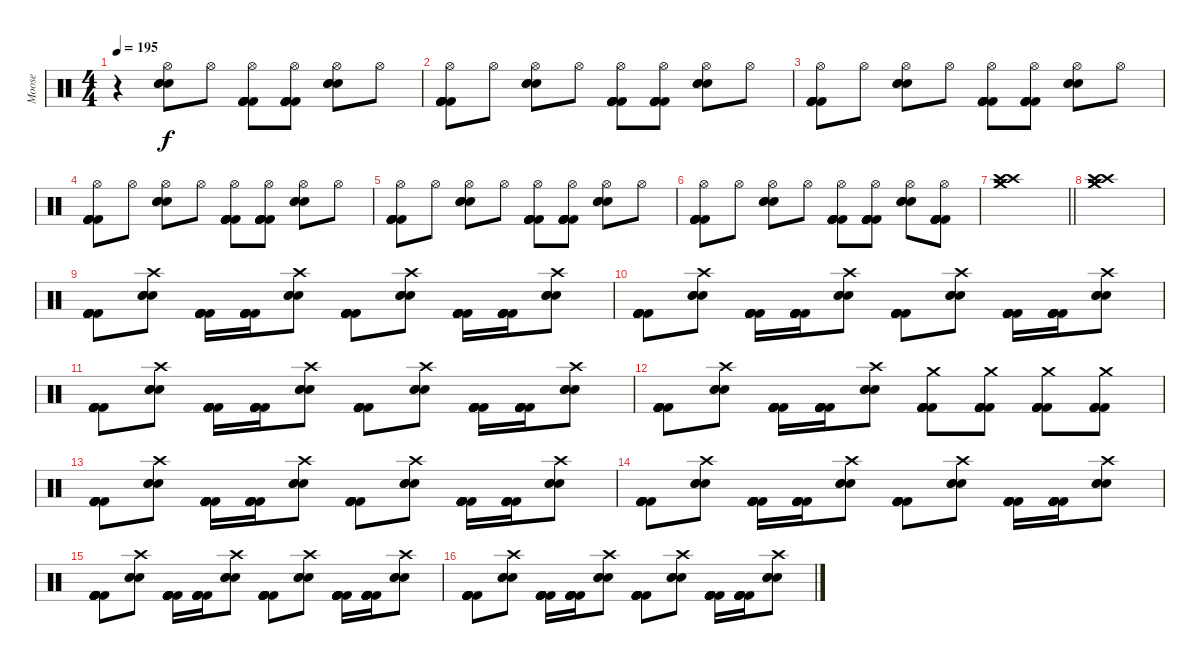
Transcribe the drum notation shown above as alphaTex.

\track ("Moose" "Moose") {instrument percussion}
\staff {score}
\articulation defaults
\ts (4 4)
\tempo 195
\clef neutral
\ks c
r.4{dy f} ("Electric Snare (hit)" "Electric Snare (hit)" "Electric Snare (hit)" "Hi-Hat (open)").8 "Hi-Hat (open)".8 ("Kick (hit) 2" "Kick (hit) 2" "Kick (hit) 2" "Kick (hit) 2" "Kick (hit) 2" "Hi-Hat (open)").8 ("Kick (hit) 2" "Kick (hit) 2" "Kick (hit) 2" "Kick (hit) 2" "Kick (hit) 2" "Hi-Hat (open)").8 ("Electric Snare (hit)" "Electric Snare (hit)" "Electric Snare (hit)" "Hi-Hat (open)").8 "Hi-Hat (open)".8 |
("Kick (hit) 2" "Kick (hit) 2" "Kick (hit) 2" "Kick (hit) 2" "Kick (hit) 2" "Hi-Hat (open)").8 "Hi-Hat (open)".8 ("Electric Snare (hit)" "Electric Snare (hit)" "Electric Snare (hit)" "Hi-Hat (open)").8 "Hi-Hat (open)".8 ("Kick (hit) 2" "Kick (hit) 2" "Kick (hit) 2" "Kick (hit) 2" "Kick (hit) 2" "Hi-Hat (open)").8 ("Kick (hit) 2" "Kick (hit) 2" "Kick (hit) 2" "Kick (hit) 2" "Kick (hit) 2" "Hi-Hat (open)").8 ("Electric Snare (hit)" "Electric Snare (hit)" "Electric Snare (hit)" "Hi-Hat (open)").8 "Hi-Hat (open)".8 |
("Kick (hit) 2" "Kick (hit) 2" "Kick (hit) 2" "Kick (hit) 2" "Kick (hit) 2" "Hi-Hat (open)").8 "Hi-Hat (open)".8 ("Electric Snare (hit)" "Electric Snare (hit)" "Electric Snare (hit)" "Hi-Hat (open)").8 "Hi-Hat (open)".8 ("Kick (hit) 2" "Kick (hit) 2" "Kick (hit) 2" "Kick (hit) 2" "Kick (hit) 2" "Hi-Hat (open)").8 ("Kick (hit) 2" "Kick (hit) 2" "Kick (hit) 2" "Kick (hit) 2" "Kick (hit) 2" "Hi-Hat (open)").8 ("Electric Snare (hit)" "Electric Snare (hit)" "Electric Snare (hit)" "Hi-Hat (open)").8 "Hi-Hat (open)".8 |
("Kick (hit) 2" "Kick (hit) 2" "Kick (hit) 2" "Kick (hit) 2" "Kick (hit) 2" "Hi-Hat (open)").8 "Hi-Hat (open)".8 ("Electric Snare (hit)" "Electric Snare (hit)" "Electric Snare (hit)" "Hi-Hat (open)").8 "Hi-Hat (open)".8 ("Kick (hit) 2" "Kick (hit) 2" "Kick (hit) 2" "Kick (hit) 2" "Kick (hit) 2" "Hi-Hat (open)").8 ("Kick (hit) 2" "Kick (hit) 2" "Kick (hit) 2" "Kick (hit) 2" "Kick (hit) 2" "Hi-Hat (open)").8 ("Electric Snare (hit)" "Electric Snare (hit)" "Electric Snare (hit)" "Hi-Hat (open)").8 "Hi-Hat (open)".8 |
("Kick (hit) 2" "Kick (hit) 2" "Kick (hit) 2" "Kick (hit) 2" "Kick (hit) 2" "Hi-Hat (open)").8 "Hi-Hat (open)".8 ("Electric Snare (hit)" "Electric Snare (hit)" "Electric Snare (hit)" "Hi-Hat (open)").8 "Hi-Hat (open)".8 ("Kick (hit) 2" "Kick (hit) 2" "Kick (hit) 2" "Kick (hit) 2" "Kick (hit) 2" "Hi-Hat (open)").8 ("Kick (hit) 2" "Kick (hit) 2" "Kick (hit) 2" "Kick (hit) 2" "Kick (hit) 2" "Hi-Hat (open)").8 ("Electric Snare (hit)" "Electric Snare (hit)" "Electric Snare (hit)" "Hi-Hat (open)").8 "Hi-Hat (open)".8 |
("Kick (hit) 2" "Kick (hit) 2" "Kick (hit) 2" "Kick (hit) 2" "Kick (hit) 2" "Hi-Hat (open)").8 "Hi-Hat (open)".8 ("Electric Snare (hit)" "Electric Snare (hit)" "Electric Snare (hit)" "Hi-Hat (open)").8 "Hi-Hat (open)".8 ("Kick (hit) 2" "Kick (hit) 2" "Kick (hit) 2" "Kick (hit) 2" "Kick (hit) 2" "Hi-Hat (open)").8 ("Kick (hit) 2" "Kick (hit) 2" "Kick (hit) 2" "Kick (hit) 2" "Kick (hit) 2" "Hi-Hat (open)").8 ("Electric Snare (hit)" "Electric Snare (hit)" "Electric Snare (hit)" "Hi-Hat (open)").8 ("Kick (hit) 2" "Kick (hit) 2" "Kick (hit) 2" "Kick (hit) 2" "Kick (hit) 2" "Hi-Hat (open)").8 |
\barLineRight lightlight
("Crash high (hit)" "Crash medium (hit)" "Crash medium (hit)" "Crash high (hit)").1 |
("Crash high (hit)" "Crash medium (hit)" "Crash medium (hit)" "Crash high (hit)").1 |
("Kick (hit) 2" "Kick (hit) 2" "Kick (hit) 2" "Kick (hit) 2" "Kick (hit) 2" "Kick (hit) 2").8 ("Electric Snare (hit)" "Electric Snare (hit)" "Electric Snare (hit)" "Crash high (hit)").8 ("Kick (hit) 2" "Kick (hit) 2" "Kick (hit) 2" "Kick (hit) 2" "Kick (hit) 2" "Kick (hit) 2").16 ("Kick (hit) 2" "Kick (hit) 2" "Kick (hit) 2" "Kick (hit) 2" "Kick (hit) 2" "Kick (hit) 2").16 ("Electric Snare (hit)" "Electric Snare (hit)" "Electric Snare (hit)" "Crash high (hit)").8 ("Kick (hit) 2" "Kick (hit) 2" "Kick (hit) 2" "Kick (hit) 2" "Kick (hit) 2" "Kick (hit) 2").8 ("Electric Snare (hit)" "Electric Snare (hit)" "Electric Snare (hit)" "Crash high (hit)").8 ("Kick (hit) 2" "Kick (hit) 2" "Kick (hit) 2" "Kick (hit) 2" "Kick (hit) 2" "Kick (hit) 2").16 ("Kick (hit) 2" "Kick (hit) 2" "Kick (hit) 2" "Kick (hit) 2" "Kick (hit) 2" "Kick (hit) 2").16 ("Electric Snare (hit)" "Electric Snare (hit)" "Electric Snare (hit)" "Crash high (hit)").8 |
("Kick (hit) 2" "Kick (hit) 2" "Kick (hit) 2" "Kick (hit) 2" "Kick (hit) 2" "Kick (hit) 2").8 ("Electric Snare (hit)" "Electric Snare (hit)" "Electric Snare (hit)" "Crash high (hit)").8 ("Kick (hit) 2" "Kick (hit) 2" "Kick (hit) 2" "Kick (hit) 2" "Kick (hit) 2" "Kick (hit) 2").16 ("Kick (hit) 2" "Kick (hit) 2" "Kick (hit) 2" "Kick (hit) 2" "Kick (hit) 2" "Kick (hit) 2").16 ("Electric Snare (hit)" "Electric Snare (hit)" "Electric Snare (hit)" "Crash high (hit)").8 ("Kick (hit) 2" "Kick (hit) 2" "Kick (hit) 2" "Kick (hit) 2" "Kick (hit) 2" "Kick (hit) 2").8 ("Electric Snare (hit)" "Electric Snare (hit)" "Electric Snare (hit)" "Crash high (hit)").8 ("Kick (hit) 2" "Kick (hit) 2" "Kick (hit) 2" "Kick (hit) 2" "Kick (hit) 2" "Kick (hit) 2").16 ("Kick (hit) 2" "Kick (hit) 2" "Kick (hit) 2" "Kick (hit) 2" "Kick (hit) 2" "Kick (hit) 2").16 ("Electric Snare (hit)" "Electric Snare (hit)" "Electric Snare (hit)" "Crash high (hit)").8 |
("Kick (hit) 2" "Kick (hit) 2" "Kick (hit) 2" "Kick (hit) 2" "Kick (hit) 2" "Kick (hit) 2").8 ("Electric Snare (hit)" "Electric Snare (hit)" "Electric Snare (hit)" "Crash high (hit)").8 ("Kick (hit) 2" "Kick (hit) 2" "Kick (hit) 2" "Kick (hit) 2" "Kick (hit) 2" "Kick (hit) 2").16 ("Kick (hit) 2" "Kick (hit) 2" "Kick (hit) 2" "Kick (hit) 2" "Kick (hit) 2" "Kick (hit) 2").16 ("Electric Snare (hit)" "Electric Snare (hit)" "Electric Snare (hit)" "Crash high (hit)").8 ("Kick (hit) 2" "Kick (hit) 2" "Kick (hit) 2" "Kick (hit) 2" "Kick (hit) 2" "Kick (hit) 2").8 ("Electric Snare (hit)" "Electric Snare (hit)" "Electric Snare (hit)" "Crash high (hit)").8 ("Kick (hit) 2" "Kick (hit) 2" "Kick (hit) 2" "Kick (hit) 2" "Kick (hit) 2" "Kick (hit) 2").16 ("Kick (hit) 2" "Kick (hit) 2" "Kick (hit) 2" "Kick (hit) 2" "Kick (hit) 2" "Kick (hit) 2").16 ("Electric Snare (hit)" "Electric Snare (hit)" "Electric Snare (hit)" "Crash high (hit)").8 |
("Kick (hit) 2" "Kick (hit) 2" "Kick (hit) 2" "Kick (hit) 2" "Kick (hit) 2" "Kick (hit) 2").8 ("Electric Snare (hit)" "Electric Snare (hit)" "Electric Snare (hit)" "Crash high (hit)").8 ("Kick (hit) 2" "Kick (hit) 2" "Kick (hit) 2" "Kick (hit) 2" "Kick (hit) 2" "Kick (hit) 2").16 ("Kick (hit) 2" "Kick (hit) 2" "Kick (hit) 2" "Kick (hit) 2" "Kick (hit) 2" "Kick (hit) 2").16 ("Electric Snare (hit)" "Electric Snare (hit)" "Electric Snare (hit)" "Crash high (hit)").8 ("Kick (hit) 2" "Kick (hit) 2" "Kick (hit) 2" "Kick (hit) 2" "Kick (hit) 2" "Crash medium (hit)").8 ("Kick (hit) 2" "Kick (hit) 2" "Kick (hit) 2" "Kick (hit) 2" "Kick (hit) 2" "Crash medium (hit)").8 ("Kick (hit) 2" "Kick (hit) 2" "Kick (hit) 2" "Kick (hit) 2" "Kick (hit) 2" "Crash medium (hit)").8 ("Kick (hit) 2" "Kick (hit) 2" "Kick (hit) 2" "Kick (hit) 2" "Kick (hit) 2" "Crash medium (hit)").8 |
("Kick (hit) 2" "Kick (hit) 2" "Kick (hit) 2" "Kick (hit) 2" "Kick (hit) 2" "Kick (hit) 2").8 ("Electric Snare (hit)" "Electric Snare (hit)" "Electric Snare (hit)" "Crash high (hit)").8 ("Kick (hit) 2" "Kick (hit) 2" "Kick (hit) 2" "Kick (hit) 2" "Kick (hit) 2" "Kick (hit) 2").16 ("Kick (hit) 2" "Kick (hit) 2" "Kick (hit) 2" "Kick (hit) 2" "Kick (hit) 2" "Kick (hit) 2").16 ("Electric Snare (hit)" "Electric Snare (hit)" "Electric Snare (hit)" "Crash high (hit)").8 ("Kick (hit) 2" "Kick (hit) 2" "Kick (hit) 2" "Kick (hit) 2" "Kick (hit) 2" "Kick (hit) 2").8 ("Electric Snare (hit)" "Electric Snare (hit)" "Electric Snare (hit)" "Crash high (hit)").8 ("Kick (hit) 2" "Kick (hit) 2" "Kick (hit) 2" "Kick (hit) 2" "Kick (hit) 2" "Kick (hit) 2").16 ("Kick (hit) 2" "Kick (hit) 2" "Kick (hit) 2" "Kick (hit) 2" "Kick (hit) 2" "Kick (hit) 2").16 ("Electric Snare (hit)" "Electric Snare (hit)" "Electric Snare (hit)" "Crash high (hit)").8 |
("Kick (hit) 2" "Kick (hit) 2" "Kick (hit) 2" "Kick (hit) 2" "Kick (hit) 2" "Kick (hit) 2").8 ("Electric Snare (hit)" "Electric Snare (hit)" "Electric Snare (hit)" "Crash high (hit)").8 ("Kick (hit) 2" "Kick (hit) 2" "Kick (hit) 2" "Kick (hit) 2" "Kick (hit) 2" "Kick (hit) 2").16 ("Kick (hit) 2" "Kick (hit) 2" "Kick (hit) 2" "Kick (hit) 2" "Kick (hit) 2" "Kick (hit) 2").16 ("Electric Snare (hit)" "Electric Snare (hit)" "Electric Snare (hit)" "Crash high (hit)").8 ("Kick (hit) 2" "Kick (hit) 2" "Kick (hit) 2" "Kick (hit) 2" "Kick (hit) 2" "Kick (hit) 2").8 ("Electric Snare (hit)" "Electric Snare (hit)" "Electric Snare (hit)" "Crash high (hit)").8 ("Kick (hit) 2" "Kick (hit) 2" "Kick (hit) 2" "Kick (hit) 2" "Kick (hit) 2" "Kick (hit) 2").16 ("Kick (hit) 2" "Kick (hit) 2" "Kick (hit) 2" "Kick (hit) 2" "Kick (hit) 2" "Kick (hit) 2").16 ("Electric Snare (hit)" "Electric Snare (hit)" "Electric Snare (hit)" "Crash high (hit)").8 |
("Kick (hit) 2" "Kick (hit) 2" "Kick (hit) 2" "Kick (hit) 2" "Kick (hit) 2" "Kick (hit) 2").8 ("Electric Snare (hit)" "Electric Snare (hit)" "Electric Snare (hit)" "Crash high (hit)").8 ("Kick (hit) 2" "Kick (hit) 2" "Kick (hit) 2" "Kick (hit) 2" "Kick (hit) 2" "Kick (hit) 2").16 ("Kick (hit) 2" "Kick (hit) 2" "Kick (hit) 2" "Kick (hit) 2" "Kick (hit) 2" "Kick (hit) 2").16 ("Electric Snare (hit)" "Electric Snare (hit)" "Electric Snare (hit)" "Crash high (hit)").8 ("Kick (hit) 2" "Kick (hit) 2" "Kick (hit) 2" "Kick (hit) 2" "Kick (hit) 2" "Kick (hit) 2").8 ("Electric Snare (hit)" "Electric Snare (hit)" "Electric Snare (hit)" "Crash high (hit)").8 ("Kick (hit) 2" "Kick (hit) 2" "Kick (hit) 2" "Kick (hit) 2" "Kick (hit) 2" "Kick (hit) 2").16 ("Kick (hit) 2" "Kick (hit) 2" "Kick (hit) 2" "Kick (hit) 2" "Kick (hit) 2" "Kick (hit) 2").16 ("Electric Snare (hit)" "Electric Snare (hit)" "Electric Snare (hit)" "Crash high (hit)").8 |
("Kick (hit) 2" "Kick (hit) 2" "Kick (hit) 2" "Kick (hit) 2" "Kick (hit) 2" "Kick (hit) 2").8 ("Electric Snare (hit)" "Electric Snare (hit)" "Electric Snare (hit)" "Crash high (hit)").8 ("Kick (hit) 2" "Kick (hit) 2" "Kick (hit) 2" "Kick (hit) 2" "Kick (hit) 2" "Kick (hit) 2").16 ("Kick (hit) 2" "Kick (hit) 2" "Kick (hit) 2" "Kick (hit) 2" "Kick (hit) 2" "Kick (hit) 2").16 ("Electric Snare (hit)" "Electric Snare (hit)" "Electric Snare (hit)" "Crash high (hit)").8 ("Kick (hit) 2" "Kick (hit) 2" "Kick (hit) 2" "Kick (hit) 2" "Kick (hit) 2" "Kick (hit) 2").8 ("Electric Snare (hit)" "Electric Snare (hit)" "Electric Snare (hit)" "Crash high (hit)").8 ("Kick (hit) 2" "Kick (hit) 2" "Kick (hit) 2" "Kick (hit) 2" "Kick (hit) 2" "Kick (hit) 2").16 ("Kick (hit) 2" "Kick (hit) 2" "Kick (hit) 2" "Kick (hit) 2" "Kick (hit) 2" "Kick (hit) 2").16 ("Electric Snare (hit)" "Electric Snare (hit)" "Electric Snare (hit)" "Crash high (hit)").8
